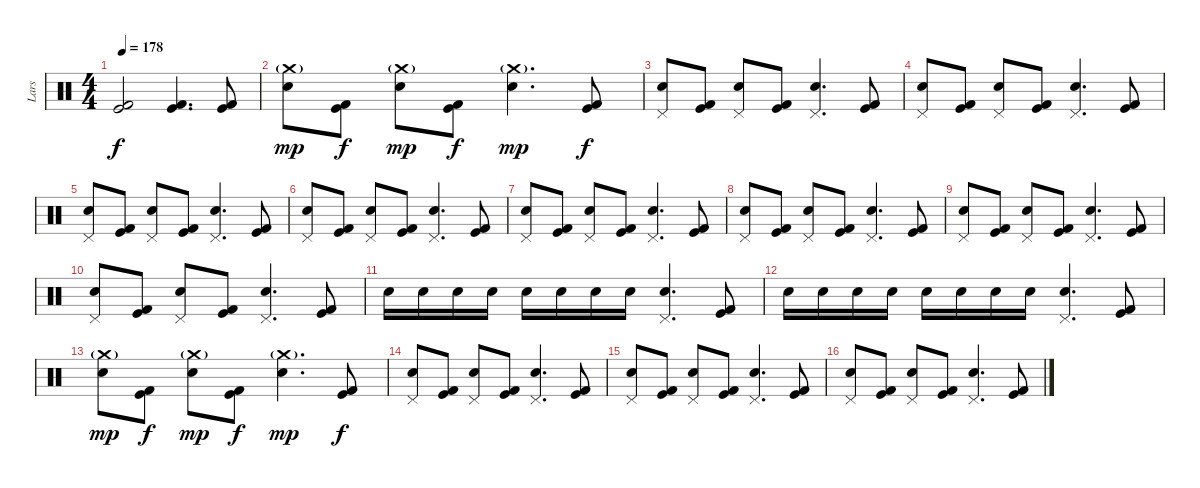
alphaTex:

\track ("Lars" "Lars") {instrument percussion}
\staff {score}
\articulation defaults
\ts (4 4)
\tempo 178
\clef neutral
\ks c
("Kick (hit)" "Kick (hit) 2").2{dy f} ("Kick (hit)" "Kick (hit) 2").4{d} ("Kick (hit)" "Kick (hit) 2").8 |
("Crash medium (hit)"{g} "Electric Snare (hit)").8{dy mp} ("Kick (hit)" "Kick (hit) 2").8{dy f} ("Crash medium (hit)"{g} "Electric Snare (hit)").8{dy mp} ("Kick (hit)" "Kick (hit) 2").8{dy f} ("Crash medium (hit)"{g} "Electric Snare (hit)").4{d dy mp} ("Kick (hit)" "Kick (hit) 2").8{dy f} |
("Pedal Hi-Hat (hit)" "Electric Snare (hit)").8 ("Kick (hit)" "Kick (hit) 2").8 ("Pedal Hi-Hat (hit)" "Electric Snare (hit)").8 ("Kick (hit)" "Kick (hit) 2").8 ("Pedal Hi-Hat (hit)" "Electric Snare (hit)").4{d} ("Kick (hit)" "Kick (hit) 2").8 |
("Pedal Hi-Hat (hit)" "Electric Snare (hit)").8 ("Kick (hit)" "Kick (hit) 2").8 ("Pedal Hi-Hat (hit)" "Electric Snare (hit)").8 ("Kick (hit)" "Kick (hit) 2").8 ("Pedal Hi-Hat (hit)" "Electric Snare (hit)").4{d} ("Kick (hit)" "Kick (hit) 2").8 |
("Pedal Hi-Hat (hit)" "Electric Snare (hit)").8 ("Kick (hit)" "Kick (hit) 2").8 ("Pedal Hi-Hat (hit)" "Electric Snare (hit)").8 ("Kick (hit)" "Kick (hit) 2").8 ("Pedal Hi-Hat (hit)" "Electric Snare (hit)").4{d} ("Kick (hit)" "Kick (hit) 2").8 |
("Pedal Hi-Hat (hit)" "Electric Snare (hit)").8 ("Kick (hit)" "Kick (hit) 2").8 ("Pedal Hi-Hat (hit)" "Electric Snare (hit)").8 ("Kick (hit)" "Kick (hit) 2").8 ("Pedal Hi-Hat (hit)" "Electric Snare (hit)").4{d} ("Kick (hit)" "Kick (hit) 2").8 |
("Pedal Hi-Hat (hit)" "Electric Snare (hit)").8 ("Kick (hit)" "Kick (hit) 2").8 ("Pedal Hi-Hat (hit)" "Electric Snare (hit)").8 ("Kick (hit)" "Kick (hit) 2").8 ("Pedal Hi-Hat (hit)" "Electric Snare (hit)").4{d} ("Kick (hit)" "Kick (hit) 2").8 |
("Pedal Hi-Hat (hit)" "Electric Snare (hit)").8 ("Kick (hit)" "Kick (hit) 2").8 ("Pedal Hi-Hat (hit)" "Electric Snare (hit)").8 ("Kick (hit)" "Kick (hit) 2").8 ("Pedal Hi-Hat (hit)" "Electric Snare (hit)").4{d} ("Kick (hit)" "Kick (hit) 2").8 |
("Pedal Hi-Hat (hit)" "Electric Snare (hit)").8 ("Kick (hit)" "Kick (hit) 2").8 ("Pedal Hi-Hat (hit)" "Electric Snare (hit)").8 ("Kick (hit)" "Kick (hit) 2").8 ("Pedal Hi-Hat (hit)" "Electric Snare (hit)").4{d} ("Kick (hit)" "Kick (hit) 2").8 |
("Pedal Hi-Hat (hit)" "Electric Snare (hit)").8 ("Kick (hit)" "Kick (hit) 2").8 ("Pedal Hi-Hat (hit)" "Electric Snare (hit)").8 ("Kick (hit)" "Kick (hit) 2").8 ("Pedal Hi-Hat (hit)" "Electric Snare (hit)").4{d} ("Kick (hit)" "Kick (hit) 2").8 |
"Electric Snare (hit)".16 "Electric Snare (hit)".16 "Electric Snare (hit)".16 "Electric Snare (hit)".16 "Electric Snare (hit)".16 "Electric Snare (hit)".16 "Electric Snare (hit)".16 "Electric Snare (hit)".16 ("Pedal Hi-Hat (hit)" "Electric Snare (hit)").4{d} ("Kick (hit)" "Kick (hit) 2").8 |
"Electric Snare (hit)".16 "Electric Snare (hit)".16 "Electric Snare (hit)".16 "Electric Snare (hit)".16 "Electric Snare (hit)".16 "Electric Snare (hit)".16 "Electric Snare (hit)".16 "Electric Snare (hit)".16 ("Pedal Hi-Hat (hit)" "Electric Snare (hit)").4{d} ("Kick (hit)" "Kick (hit) 2").8 |
("Crash medium (hit)"{g} "Electric Snare (hit)").8{dy mp} ("Kick (hit)" "Kick (hit) 2").8{dy f} ("Crash medium (hit)"{g} "Electric Snare (hit)").8{dy mp} ("Kick (hit)" "Kick (hit) 2").8{dy f} ("Crash medium (hit)"{g} "Electric Snare (hit)").4{d dy mp} ("Kick (hit)" "Kick (hit) 2").8{dy f} |
("Pedal Hi-Hat (hit)" "Electric Snare (hit)").8 ("Kick (hit)" "Kick (hit) 2").8 ("Pedal Hi-Hat (hit)" "Electric Snare (hit)").8 ("Kick (hit)" "Kick (hit) 2").8 ("Pedal Hi-Hat (hit)" "Electric Snare (hit)").4{d} ("Kick (hit)" "Kick (hit) 2").8 |
("Pedal Hi-Hat (hit)" "Electric Snare (hit)").8 ("Kick (hit)" "Kick (hit) 2").8 ("Pedal Hi-Hat (hit)" "Electric Snare (hit)").8 ("Kick (hit)" "Kick (hit) 2").8 ("Pedal Hi-Hat (hit)" "Electric Snare (hit)").4{d} ("Kick (hit)" "Kick (hit) 2").8 |
("Pedal Hi-Hat (hit)" "Electric Snare (hit)").8 ("Kick (hit)" "Kick (hit) 2").8 ("Pedal Hi-Hat (hit)" "Electric Snare (hit)").8 ("Kick (hit)" "Kick (hit) 2").8 ("Pedal Hi-Hat (hit)" "Electric Snare (hit)").4{d} ("Kick (hit)" "Kick (hit) 2").8
